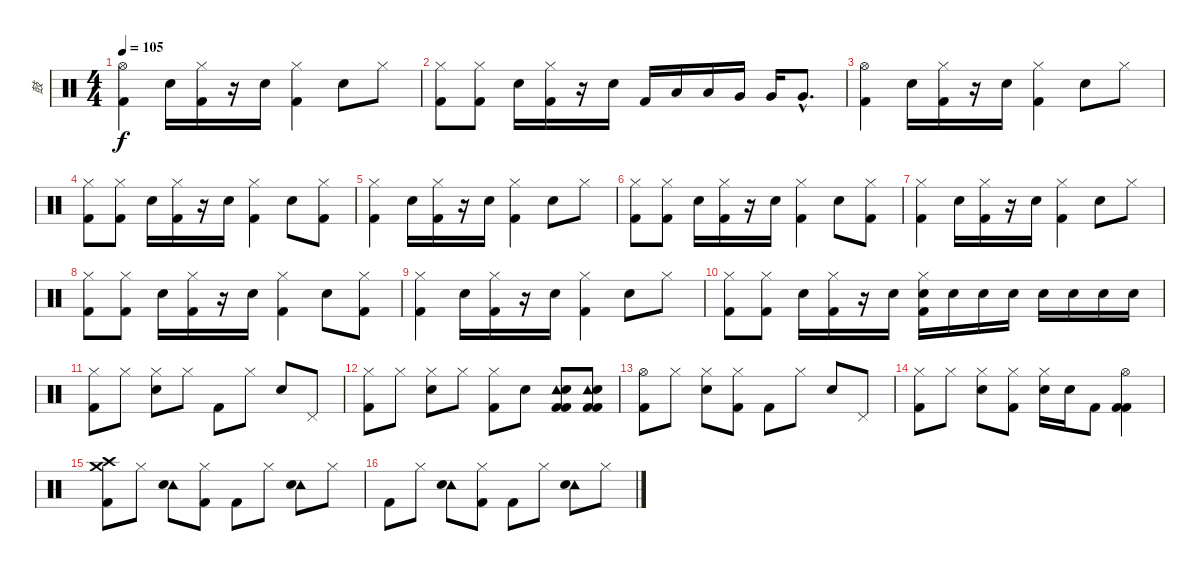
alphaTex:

\track ("鼓" "鼓") {instrument percussion}
\staff {score}
\articulation defaults
\ts (4 4)
\tempo 105
\clef neutral
\ks c
("Hi-Hat (open)" "Kick (hit) 2").4{dy f} "Electric Snare (hit)".16 ("Hi-Hat (closed)" "Kick (hit) 2").16 r.16 "Electric Snare (hit)".16 ("Hi-Hat (closed)" "Kick (hit) 2").4 "Electric Snare (hit)".8 "Hi-Hat (closed)".8 |
("Hi-Hat (closed)" "Kick (hit) 2").8 ("Hi-Hat (closed)" "Kick (hit) 2").8 "Electric Snare (hit)".16 ("Hi-Hat (closed)" "Kick (hit) 2").16 r.16 "Electric Snare (hit)".16 "Kick (hit) 2".16 "Low Tom (hit)".16 "Low Tom (hit)".16 "Very Low Tom (hit)".16 "Very Low Tom (hit)".16 "Very Low Tom (hit)"{hac}.8{d} |
("Hi-Hat (open)" "Kick (hit) 2").4 "Electric Snare (hit)".16 ("Hi-Hat (closed)" "Kick (hit) 2").16 r.16 "Electric Snare (hit)".16 ("Hi-Hat (closed)" "Kick (hit) 2").4 "Electric Snare (hit)".8 "Hi-Hat (closed)".8 |
("Hi-Hat (closed)" "Kick (hit) 2").8 ("Hi-Hat (closed)" "Kick (hit) 2").8 "Electric Snare (hit)".16 ("Hi-Hat (closed)" "Kick (hit) 2").16 r.16 "Electric Snare (hit)".16 ("Hi-Hat (closed)" "Kick (hit) 2").4 "Electric Snare (hit)".8 ("Hi-Hat (closed)" "Kick (hit) 2").8 |
("Hi-Hat (closed)" "Kick (hit) 2").4 "Electric Snare (hit)".16 ("Hi-Hat (closed)" "Kick (hit) 2").16 r.16 "Electric Snare (hit)".16 ("Hi-Hat (closed)" "Kick (hit) 2").4 "Electric Snare (hit)".8 "Hi-Hat (closed)".8 |
("Hi-Hat (closed)" "Kick (hit) 2").8 ("Hi-Hat (closed)" "Kick (hit) 2").8 "Electric Snare (hit)".16 ("Hi-Hat (closed)" "Kick (hit) 2").16 r.16 "Electric Snare (hit)".16 ("Hi-Hat (closed)" "Kick (hit) 2").4 "Electric Snare (hit)".8 ("Hi-Hat (closed)" "Kick (hit) 2").8 |
("Hi-Hat (closed)" "Kick (hit) 2").4 "Electric Snare (hit)".16 ("Hi-Hat (closed)" "Kick (hit) 2").16 r.16 "Electric Snare (hit)".16 ("Hi-Hat (closed)" "Kick (hit) 2").4 "Electric Snare (hit)".8 "Hi-Hat (closed)".8 |
("Hi-Hat (closed)" "Kick (hit) 2").8 ("Hi-Hat (closed)" "Kick (hit) 2").8 "Electric Snare (hit)".16 ("Hi-Hat (closed)" "Kick (hit) 2").16 r.16 "Electric Snare (hit)".16 ("Hi-Hat (closed)" "Kick (hit) 2").4 "Electric Snare (hit)".8 ("Hi-Hat (closed)" "Kick (hit) 2").8 |
("Hi-Hat (closed)" "Kick (hit) 2").4 "Electric Snare (hit)".16 ("Hi-Hat (closed)" "Kick (hit) 2").16 r.16 "Electric Snare (hit)".16 ("Hi-Hat (closed)" "Kick (hit) 2").4 "Electric Snare (hit)".8 "Hi-Hat (closed)".8 |
("Hi-Hat (closed)" "Kick (hit) 2").8 ("Hi-Hat (closed)" "Kick (hit) 2").8 "Electric Snare (hit)".16 ("Hi-Hat (closed)" "Kick (hit) 2").16 r.16 "Electric Snare (hit)".16 ("Hi-Hat (closed)" "Electric Snare (hit)" "Kick (hit) 2").16 "Electric Snare (hit)".16 "Electric Snare (hit)".16 "Electric Snare (hit)".16 "Snare (hit) 2".16 "Snare (hit) 2".16 "Snare (hit) 2".16 "Snare (hit) 2".16 |
("Hi-Hat (closed)" "Kick (hit) 2").8 "Hi-Hat (closed)".8 ("Hi-Hat (closed)" "Electric Snare (hit)").8 "Hi-Hat (closed)".8 "Kick (hit) 2".8 "Hi-Hat (closed)".8 "Electric Snare (hit)".8 "Pedal Hi-Hat (hit)".8 |
("Hi-Hat (closed)" "Kick (hit) 2").8 "Hi-Hat (closed)".8 ("Hi-Hat (closed)" "Electric Snare (hit)").8 "Hi-Hat (closed)".8 ("Hi-Hat (closed)" "Kick (hit) 2").8 "Electric Snare (hit)".8 ("Tambourine (hit)" "Electric Snare (hit)" "Kick (hit) 2" "Kick (hit) 2").8 ("Tambourine (hit)" "Electric Snare (hit)" "Kick (hit) 2" "Kick (hit) 2").8 |
("Hi-Hat (open)" "Kick (hit) 2").8 "Hi-Hat (closed)".8 ("Hi-Hat (closed)" "Electric Snare (hit)").8 ("Hi-Hat (closed)" "Kick (hit) 2").8 "Kick (hit) 2".8 "Hi-Hat (closed)".8 "Electric Snare (hit)".8 "Pedal Hi-Hat (hit)".8 |
("Hi-Hat (closed)" "Kick (hit) 2").8 "Hi-Hat (closed)".8 ("Hi-Hat (closed)" "Electric Snare (hit)").8 ("Hi-Hat (closed)" "Kick (hit) 2").8 ("Hi-Hat (closed)" "Electric Snare (hit)").16 "Electric Snare (hit)".16 "Kick (hit) 2".8 ("Hi-Hat (open)" "Kick (hit) 2" "Kick (hit) 2").4 |
("Crash medium (hit)" "Crash high (hit)" "Kick (hit) 2").8 "Hi-Hat (closed)".8 ("Tambourine (hit)" "Electric Snare (hit)").8 ("Hi-Hat (closed)" "Kick (hit) 2").8 "Kick (hit) 2".8 "Hi-Hat (closed)".8 ("Tambourine (hit)" "Electric Snare (hit)").8 "Hi-Hat (closed)".8 |
"Kick (hit) 2".8 "Hi-Hat (closed)".8 ("Tambourine (hit)" "Electric Snare (hit)").8 ("Hi-Hat (closed)" "Kick (hit) 2").8 "Kick (hit) 2".8 "Hi-Hat (closed)".8 ("Tambourine (hit)" "Electric Snare (hit)").8 "Hi-Hat (closed)".8
